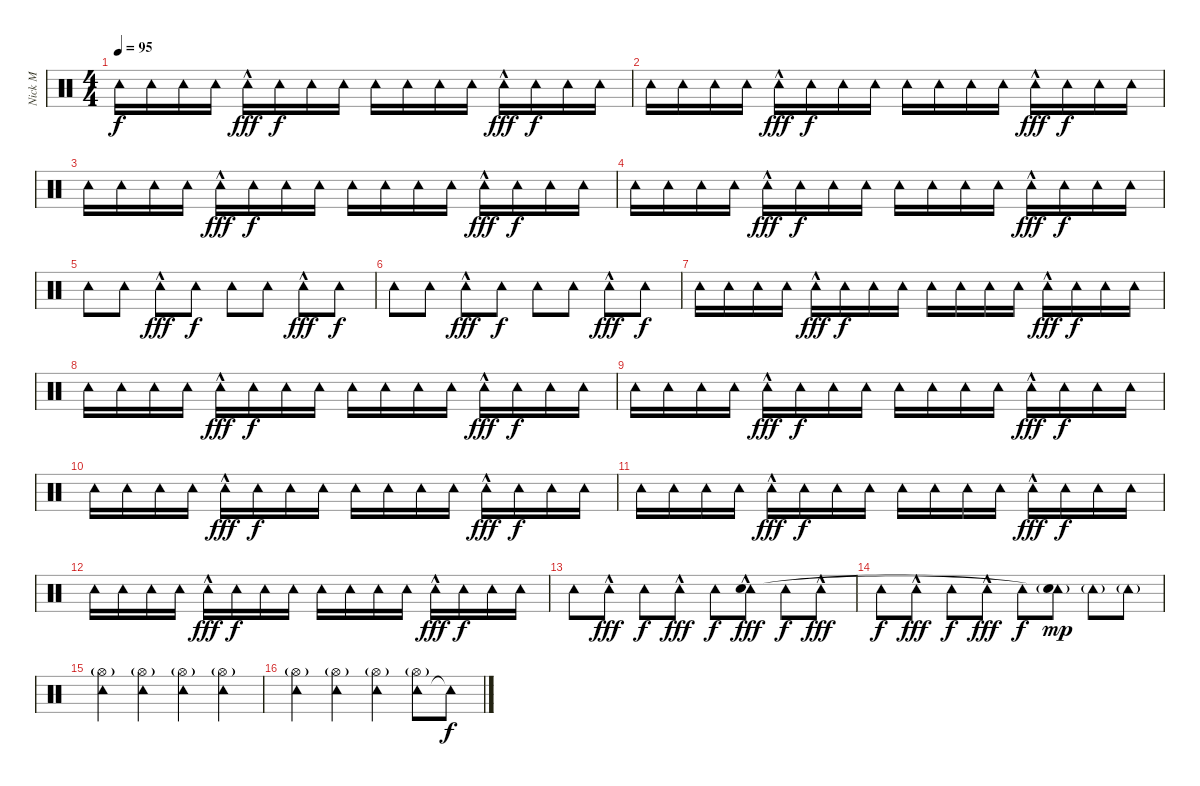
\track ("Nick M" "Nick M") {instrument percussion}
\staff {score}
\articulation defaults
\ts (4 4)
\tempo 95
\clef neutral
\ks c "Tambourine (hit)".16{dy f} "Tambourine (hit)".16 "Tambourine (hit)".16 "Tambourine (hit)".16 "Tambourine (hit)"{hac}.16{dy fff} "Tambourine (hit)".16{dy f} "Tambourine (hit)".16 "Tambourine (hit)".16 "Tambourine (hit)".16 "Tambourine (hit)".16 "Tambourine (hit)".16 "Tambourine (hit)".16 "Tambourine (hit)"{hac}.16{dy fff} "Tambourine (hit)".16{dy f} "Tambourine (hit)".16 "Tambourine (hit)".16
|
"Tambourine (hit)".16 "Tambourine (hit)".16 "Tambourine (hit)".16 "Tambourine (hit)".16 "Tambourine (hit)"{hac}.16{dy fff} "Tambourine (hit)".16{dy f} "Tambourine (hit)".16 "Tambourine (hit)".16 "Tambourine (hit)".16 "Tambourine (hit)".16 "Tambourine (hit)".16 "Tambourine (hit)".16 "Tambourine (hit)"{hac}.16{dy fff} "Tambourine (hit)".16{dy f} "Tambourine (hit)".16 "Tambourine (hit)".16 |
"Tambourine (hit)".16 "Tambourine (hit)".16 "Tambourine (hit)".16 "Tambourine (hit)".16 "Tambourine (hit)"{hac}.16{dy fff} "Tambourine (hit)".16{dy f} "Tambourine (hit)".16 "Tambourine (hit)".16 "Tambourine (hit)".16 "Tambourine (hit)".16 "Tambourine (hit)".16 "Tambourine (hit)".16 "Tambourine (hit)"{hac}.16{dy fff} "Tambourine (hit)".16{dy f} "Tambourine (hit)".16 "Tambourine (hit)".16 |
"Tambourine (hit)".16 "Tambourine (hit)".16 "Tambourine (hit)".16 "Tambourine (hit)".16 "Tambourine (hit)"{hac}.16{dy fff} "Tambourine (hit)".16{dy f} "Tambourine (hit)".16 "Tambourine (hit)".16 "Tambourine (hit)".16 "Tambourine (hit)".16 "Tambourine (hit)".16 "Tambourine (hit)".16 "Tambourine (hit)"{hac}.16{dy fff} "Tambourine (hit)".16{dy f} "Tambourine (hit)".16 "Tambourine (hit)".16 |
"Tambourine (hit)".8 "Tambourine (hit)".8 "Tambourine (hit)"{hac}.8{dy fff} "Tambourine (hit)".8{dy f} "Tambourine (hit)".8 "Tambourine (hit)".8 "Tambourine (hit)"{hac}.8{dy fff} "Tambourine (hit)".8{dy f} |
"Tambourine (hit)".8 "Tambourine (hit)".8 "Tambourine (hit)"{hac}.8{dy fff} "Tambourine (hit)".8{dy f} "Tambourine (hit)".8 "Tambourine (hit)".8 "Tambourine (hit)"{hac}.8{dy fff} "Tambourine (hit)".8{dy f} |
"Tambourine (hit)".16 "Tambourine (hit)".16 "Tambourine (hit)".16 "Tambourine (hit)".16 "Tambourine (hit)"{hac}.16{dy fff} "Tambourine (hit)".16{dy f} "Tambourine (hit)".16 "Tambourine (hit)".16 "Tambourine (hit)".16 "Tambourine (hit)".16 "Tambourine (hit)".16 "Tambourine (hit)".16 "Tambourine (hit)"{hac}.16{dy fff} "Tambourine (hit)".16{dy f} "Tambourine (hit)".16 "Tambourine (hit)".16 |
"Tambourine (hit)".16 "Tambourine (hit)".16 "Tambourine (hit)".16 "Tambourine (hit)".16 "Tambourine (hit)"{hac}.16{dy fff} "Tambourine (hit)".16{dy f} "Tambourine (hit)".16 "Tambourine (hit)".16 "Tambourine (hit)".16 "Tambourine (hit)".16 "Tambourine (hit)".16 "Tambourine (hit)".16 "Tambourine (hit)"{hac}.16{dy fff} "Tambourine (hit)".16{dy f} "Tambourine (hit)".16 "Tambourine (hit)".16 |
"Tambourine (hit)".16 "Tambourine (hit)".16 "Tambourine (hit)".16 "Tambourine (hit)".16 "Tambourine (hit)"{hac}.16{dy fff} "Tambourine (hit)".16{dy f} "Tambourine (hit)".16 "Tambourine (hit)".16 "Tambourine (hit)".16 "Tambourine (hit)".16 "Tambourine (hit)".16 "Tambourine (hit)".16 "Tambourine (hit)"{hac}.16{dy fff} "Tambourine (hit)".16{dy f} "Tambourine (hit)".16 "Tambourine (hit)".16 |
"Tambourine (hit)".16 "Tambourine (hit)".16 "Tambourine (hit)".16 "Tambourine (hit)".16 "Tambourine (hit)"{hac}.16{dy fff} "Tambourine (hit)".16{dy f} "Tambourine (hit)".16 "Tambourine (hit)".16 "Tambourine (hit)".16 "Tambourine (hit)".16 "Tambourine (hit)".16 "Tambourine (hit)".16 "Tambourine (hit)"{hac}.16{dy fff} "Tambourine (hit)".16{dy f} "Tambourine (hit)".16 "Tambourine (hit)".16 |
"Tambourine (hit)".16 "Tambourine (hit)".16 "Tambourine (hit)".16 "Tambourine (hit)".16 "Tambourine (hit)"{hac}.16{dy fff} "Tambourine (hit)".16{dy f} "Tambourine (hit)".16 "Tambourine (hit)".16 "Tambourine (hit)".16 "Tambourine (hit)".16 "Tambourine (hit)".16 "Tambourine (hit)".16 "Tambourine (hit)"{hac}.16{dy fff} "Tambourine (hit)".16{dy f} "Tambourine (hit)".16 "Tambourine (hit)".16 |
"Tambourine (hit)".16 "Tambourine (hit)".16 "Tambourine (hit)".16 "Tambourine (hit)".16 "Tambourine (hit)"{hac}.16{dy fff} "Tambourine (hit)".16{dy f} "Tambourine (hit)".16 "Tambourine (hit)".16 "Tambourine (hit)".16 "Tambourine (hit)".16 "Tambourine (hit)".16 "Tambourine (hit)".16 "Tambourine (hit)"{hac}.16{dy fff} "Tambourine (hit)".16{dy f} "Tambourine (hit)".16 "Tambourine (hit)".16 |
"Tambourine (hit)".8 "Tambourine (hit)"{hac}.8{dy fff} "Tambourine (hit)".8{dy f} "Tambourine (hit)"{hac}.8{dy fff} "Tambourine (hit)".8{dy f} ("Tambourine (hit)"{hac} "Snare (hit)").8{dy fff} "Tambourine (hit)".8{dy f} "Tambourine (hit)"{hac}.8{dy fff} |
"Tambourine (hit)".8{dy f} "Tambourine (hit)"{hac}.8{dy fff} "Tambourine (hit)".8{dy f} "Tambourine (hit)"{hac}.8{dy fff} "Tambourine (hit)".8{dy f} ("Tambourine (hit)"{g} "Snare (hit)"{t}).8{dy mp} "Tambourine (hit)"{g}.8 "Tambourine (hit)"{g}.8 |
("Tambourine (hit)" "Hi-Hat (open)"{g}).4 ("Tambourine (hit)" "Hi-Hat (open)"{g}).4 ("Tambourine (hit)" "Hi-Hat (open)"{g}).4 ("Tambourine (hit)" "Hi-Hat (open)"{g}).4 |
("Tambourine (hit)" "Hi-Hat (open)"{g}).4 ("Tambourine (hit)" "Hi-Hat (open)"{g}).4 ("Tambourine (hit)" "Hi-Hat (open)"{g}).4 ("Tambourine (hit)" "Hi-Hat (open)"{g}).8 "Tambourine (hit)"{t}.8{dy f}
